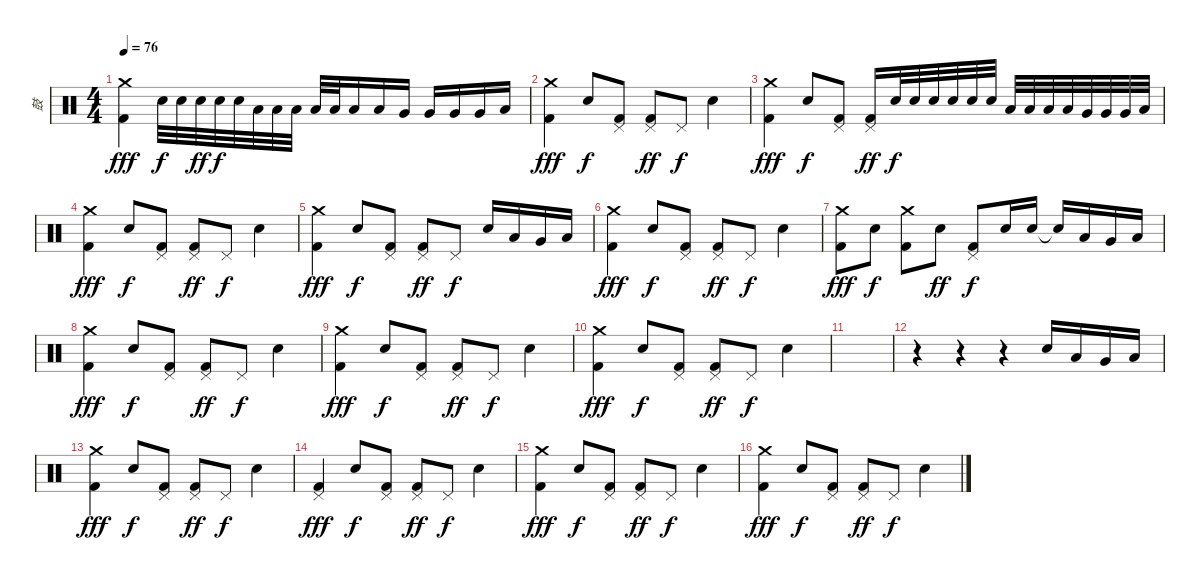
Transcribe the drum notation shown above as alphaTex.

\track ("鼓" "鼓") {instrument percussion}
\staff {score}
\articulation defaults
\ts (4 4)
\tempo 76
\clef neutral
\ks c
("Kick (hit) 2" "Crash medium (hit)").4{dy fff} "Electric Snare (hit)".32{dy f} "Electric Snare (hit)".32 "Electric Snare (hit)".32{dy ff} "Electric Snare (hit)".32{dy f} "Electric Snare (hit)".32 "Low Tom (hit)".32 "Low Tom (hit)".32 "Low Tom (hit)".32 "Low Tom (hit)".32 "Low Tom (hit)".32 "Low Tom (hit)".16 "Low Tom (hit)".16 "Very Low Tom (hit)".16 "Very Low Tom (hit)".16 "Very Low Tom (hit)".16 "Very Low Tom (hit)".16 "Low Floor Tom (hit)".16 |
("Kick (hit) 2" "Crash medium (hit)").4{dy fff} "Electric Snare (hit)".8{dy f} ("Kick (hit) 2" "Pedal Hi-Hat (hit)").8 ("Kick (hit) 2" "Pedal Hi-Hat (hit)").8{dy ff} "Pedal Hi-Hat (hit)".8{dy f} "Electric Snare (hit)".4 |
("Kick (hit) 2" "Crash medium (hit)").4{dy fff} "Electric Snare (hit)".8{dy f} ("Kick (hit) 2" "Pedal Hi-Hat (hit)").8 ("Kick (hit) 2" "Pedal Hi-Hat (hit)").16{dy ff} "Electric Snare (hit)".32{dy f} "Electric Snare (hit)".32 "Electric Snare (hit)".32 "Electric Snare (hit)".32 "Electric Snare (hit)".32 "Electric Snare (hit)".32 "Low Tom (hit)".32 "Low Tom (hit)".32 "Low Tom (hit)".32 "Low Tom (hit)".32 "Very Low Tom (hit)".32 "Very Low Tom (hit)".32 "Very Low Tom (hit)".32 "Low Floor Tom (hit)".32 |
("Kick (hit) 2" "Crash medium (hit)").4{dy fff} "Electric Snare (hit)".8{dy f} ("Kick (hit) 2" "Pedal Hi-Hat (hit)").8 ("Kick (hit) 2" "Pedal Hi-Hat (hit)").8{dy ff} "Pedal Hi-Hat (hit)".8{dy f} "Electric Snare (hit)".4 |
("Kick (hit) 2" "Crash medium (hit)").4{dy fff} "Electric Snare (hit)".8{dy f} ("Kick (hit) 2" "Pedal Hi-Hat (hit)").8 ("Kick (hit) 2" "Pedal Hi-Hat (hit)").8{dy ff} "Pedal Hi-Hat (hit)".8{dy f} "Electric Snare (hit)".16 "Low Tom (hit)".16 "Very Low Tom (hit)".16 "Low Floor Tom (hit)".16 |
("Kick (hit) 2" "Crash medium (hit)").4{dy fff} "Electric Snare (hit)".8{dy f} ("Kick (hit) 2" "Pedal Hi-Hat (hit)").8 ("Kick (hit) 2" "Pedal Hi-Hat (hit)").8{dy ff} "Pedal Hi-Hat (hit)".8{dy f} "Electric Snare (hit)".4 |
("Kick (hit) 2" "Crash medium (hit)").8{dy fff} "Electric Snare (hit)".8{dy f} ("Kick (hit) 2" "Crash medium (hit)").8 "Electric Snare (hit)".8{dy ff} ("Kick (hit) 2" "Pedal Hi-Hat (hit)").8{dy f} "Electric Snare (hit)".16 "Electric Snare (hit)".16 "Snare (hit)"{t}.16 "Low Tom (hit)".16 "Very Low Tom (hit)".16 "Low Floor Tom (hit)".16 |
("Kick (hit) 2" "Crash medium (hit)").4{dy fff} "Electric Snare (hit)".8{dy f} ("Kick (hit) 2" "Pedal Hi-Hat (hit)").8 ("Kick (hit) 2" "Pedal Hi-Hat (hit)").8{dy ff} "Pedal Hi-Hat (hit)".8{dy f} "Electric Snare (hit)".4 |
("Kick (hit) 2" "Crash medium (hit)").4{dy fff} "Electric Snare (hit)".8{dy f} ("Kick (hit) 2" "Pedal Hi-Hat (hit)").8 ("Kick (hit) 2" "Pedal Hi-Hat (hit)").8{dy ff} "Pedal Hi-Hat (hit)".8{dy f} "Electric Snare (hit)".4 |
("Kick (hit) 2" "Crash medium (hit)").4{dy fff} "Electric Snare (hit)".8{dy f} ("Kick (hit) 2" "Pedal Hi-Hat (hit)").8 ("Kick (hit) 2" "Pedal Hi-Hat (hit)").8{dy ff} "Pedal Hi-Hat (hit)".8{dy f} "Electric Snare (hit)".4 |
|
r.4 r.4 r.4 "Electric Snare (hit)".16 "Low Tom (hit)".16 "Very Low Tom (hit)".16 "Low Floor Tom (hit)".16 |
("Kick (hit) 2" "Crash medium (hit)").4{dy fff} "Electric Snare (hit)".8{dy f} ("Kick (hit) 2" "Pedal Hi-Hat (hit)").8 ("Kick (hit) 2" "Pedal Hi-Hat (hit)").8{dy ff} "Pedal Hi-Hat (hit)".8{dy f} "Electric Snare (hit)".4 |
("Kick (hit) 2" "Pedal Hi-Hat (hit)").4{dy fff} "Electric Snare (hit)".8{dy f} ("Kick (hit) 2" "Pedal Hi-Hat (hit)").8 ("Kick (hit) 2" "Pedal Hi-Hat (hit)").8{dy ff} "Pedal Hi-Hat (hit)".8{dy f} "Electric Snare (hit)".4 |
("Kick (hit) 2" "Crash medium (hit)").4{dy fff} "Electric Snare (hit)".8{dy f} ("Kick (hit) 2" "Pedal Hi-Hat (hit)").8 ("Kick (hit) 2" "Pedal Hi-Hat (hit)").8{dy ff} "Pedal Hi-Hat (hit)".8{dy f} "Electric Snare (hit)".4 |
("Kick (hit) 2" "Crash medium (hit)").4{dy fff} "Electric Snare (hit)".8{dy f} ("Kick (hit) 2" "Pedal Hi-Hat (hit)").8 ("Kick (hit) 2" "Pedal Hi-Hat (hit)").8{dy ff} "Pedal Hi-Hat (hit)".8{dy f} "Electric Snare (hit)".4
